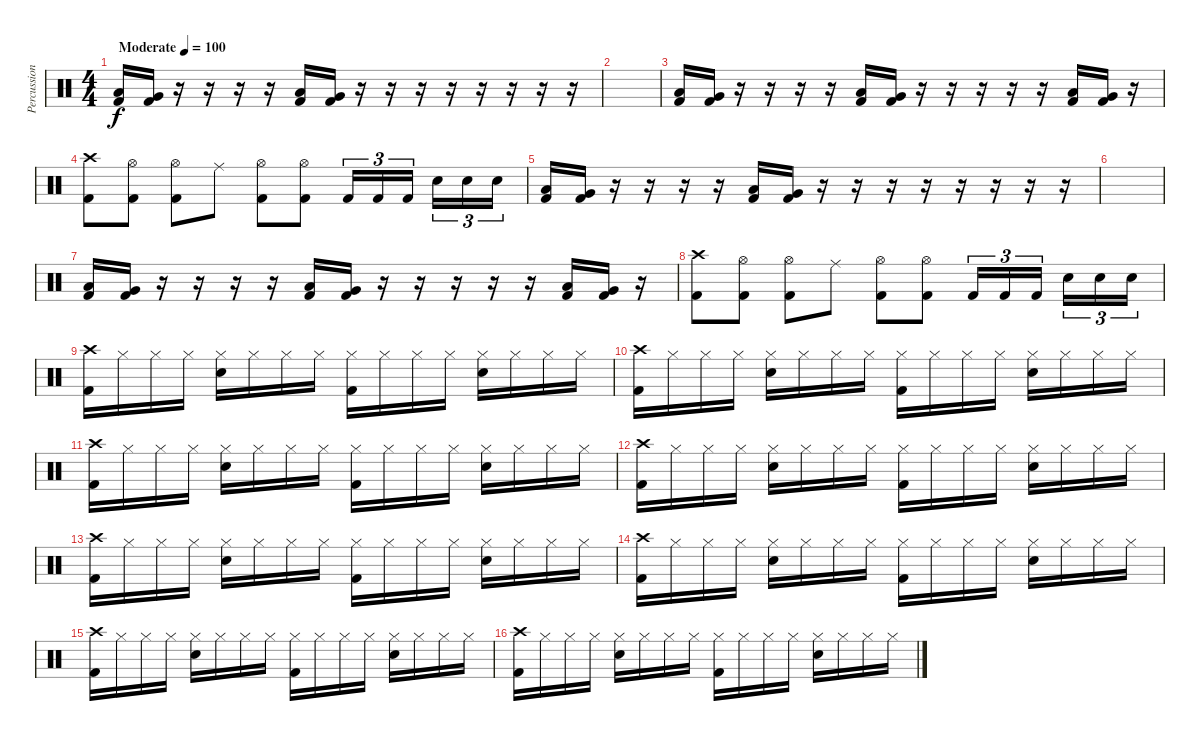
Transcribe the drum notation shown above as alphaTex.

\track ("Percussion" "Percussion") {instrument percussion}
\staff {score}
\articulation defaults
\ts (4 4)
\tempo (100 "Moderate")
\clef neutral
\ks c
("Low Floor Tom (hit)" "Kick (hit) 2").16{dy f} ("Very Low Tom (hit)" "Kick (hit) 2").16 r.16 r.16 r.16 r.16 ("Low Floor Tom (hit)" "Kick (hit) 2").16 ("Very Low Tom (hit)" "Kick (hit) 2").16 r.16 r.16 r.16 r.16 r.16 r.16 r.16 r.16 |
|
("Low Floor Tom (hit)" "Kick (hit) 2").16 ("Very Low Tom (hit)" "Kick (hit) 2").16 r.16 r.16 r.16 r.16 ("Low Floor Tom (hit)" "Kick (hit) 2").16 ("Very Low Tom (hit)" "Kick (hit) 2").16 r.16 r.16 r.16 r.16 r.16 ("Low Floor Tom (hit)" "Kick (hit) 2").16 ("Very Low Tom (hit)" "Kick (hit) 2").16 r.16 |
("Crash high (hit)" "Kick (hit) 2").8 ("Hi-Hat (open)" "Kick (hit) 2").8 ("Hi-Hat (open)" "Kick (hit) 2").8 "Ride (middle)".8 ("Hi-Hat (open)" "Kick (hit) 2").8 ("Hi-Hat (open)" "Kick (hit) 2").8 "Kick (hit) 2".16{tu (3 2)} "Kick (hit) 2".16{tu (3 2)} "Kick (hit) 2".16{tu (3 2) beam splitsecondary} "Electric Snare (hit)".16{tu (3 2)} "Electric Snare (hit)".16{tu (3 2)} "Electric Snare (hit)".16{tu (3 2)} |
("Low Floor Tom (hit)" "Kick (hit) 2").16 ("Very Low Tom (hit)" "Kick (hit) 2").16 r.16 r.16 r.16 r.16 ("Low Floor Tom (hit)" "Kick (hit) 2").16 ("Very Low Tom (hit)" "Kick (hit) 2").16 r.16 r.16 r.16 r.16 r.16 r.16 r.16 r.16 |
|
("Low Floor Tom (hit)" "Kick (hit) 2").16 ("Very Low Tom (hit)" "Kick (hit) 2").16 r.16 r.16 r.16 r.16 ("Low Floor Tom (hit)" "Kick (hit) 2").16 ("Very Low Tom (hit)" "Kick (hit) 2").16 r.16 r.16 r.16 r.16 r.16 ("Low Floor Tom (hit)" "Kick (hit) 2").16 ("Very Low Tom (hit)" "Kick (hit) 2").16 r.16 |
("Crash high (hit)" "Kick (hit) 2").8 ("Hi-Hat (open)" "Kick (hit) 2").8 ("Hi-Hat (open)" "Kick (hit) 2").8 "Ride (middle)".8 ("Hi-Hat (open)" "Kick (hit) 2").8 ("Hi-Hat (open)" "Kick (hit) 2").8 "Kick (hit) 2".16{tu (3 2)} "Kick (hit) 2".16{tu (3 2)} "Kick (hit) 2".16{tu (3 2) beam splitsecondary} "Electric Snare (hit)".16{tu (3 2)} "Electric Snare (hit)".16{tu (3 2)} "Electric Snare (hit)".16{tu (3 2)} |
("Crash high (hit)" "Kick (hit) 2").16 "Hi-Hat (closed)".16 "Hi-Hat (closed)".16 "Hi-Hat (closed)".16 ("Hi-Hat (closed)" "Electric Snare (hit)").16 "Hi-Hat (closed)".16 "Hi-Hat (closed)".16 "Hi-Hat (closed)".16 ("Hi-Hat (closed)" "Kick (hit) 2").16 "Hi-Hat (closed)".16 "Hi-Hat (closed)".16 "Hi-Hat (closed)".16 ("Hi-Hat (closed)" "Electric Snare (hit)").16 "Hi-Hat (closed)".16 "Hi-Hat (closed)".16 "Hi-Hat (closed)".16 |
("Crash high (hit)" "Kick (hit) 2").16 "Hi-Hat (closed)".16 "Hi-Hat (closed)".16 "Hi-Hat (closed)".16 ("Hi-Hat (closed)" "Electric Snare (hit)").16 "Hi-Hat (closed)".16 "Hi-Hat (closed)".16 "Hi-Hat (closed)".16 ("Hi-Hat (closed)" "Kick (hit) 2").16 "Hi-Hat (closed)".16 "Hi-Hat (closed)".16 "Hi-Hat (closed)".16 ("Hi-Hat (closed)" "Electric Snare (hit)").16 "Hi-Hat (closed)".16 "Hi-Hat (closed)".16 "Hi-Hat (closed)".16 |
("Crash high (hit)" "Kick (hit) 2").16 "Hi-Hat (closed)".16 "Hi-Hat (closed)".16 "Hi-Hat (closed)".16 ("Hi-Hat (closed)" "Electric Snare (hit)").16 "Hi-Hat (closed)".16 "Hi-Hat (closed)".16 "Hi-Hat (closed)".16 ("Hi-Hat (closed)" "Kick (hit) 2").16 "Hi-Hat (closed)".16 "Hi-Hat (closed)".16 "Hi-Hat (closed)".16 ("Hi-Hat (closed)" "Electric Snare (hit)").16 "Hi-Hat (closed)".16 "Hi-Hat (closed)".16 "Hi-Hat (closed)".16 |
("Crash high (hit)" "Kick (hit) 2").16 "Hi-Hat (closed)".16 "Hi-Hat (closed)".16 "Hi-Hat (closed)".16 ("Hi-Hat (closed)" "Electric Snare (hit)").16 "Hi-Hat (closed)".16 "Hi-Hat (closed)".16 "Hi-Hat (closed)".16 ("Hi-Hat (closed)" "Kick (hit) 2").16 "Hi-Hat (closed)".16 "Hi-Hat (closed)".16 "Hi-Hat (closed)".16 ("Hi-Hat (closed)" "Electric Snare (hit)").16 "Hi-Hat (closed)".16 "Hi-Hat (closed)".16 "Hi-Hat (closed)".16 |
("Crash high (hit)" "Kick (hit) 2").16 "Hi-Hat (closed)".16 "Hi-Hat (closed)".16 "Hi-Hat (closed)".16 ("Hi-Hat (closed)" "Electric Snare (hit)").16 "Hi-Hat (closed)".16 "Hi-Hat (closed)".16 "Hi-Hat (closed)".16 ("Hi-Hat (closed)" "Kick (hit) 2").16 "Hi-Hat (closed)".16 "Hi-Hat (closed)".16 "Hi-Hat (closed)".16 ("Hi-Hat (closed)" "Electric Snare (hit)").16 "Hi-Hat (closed)".16 "Hi-Hat (closed)".16 "Hi-Hat (closed)".16 |
("Crash high (hit)" "Kick (hit) 2").16 "Hi-Hat (closed)".16 "Hi-Hat (closed)".16 "Hi-Hat (closed)".16 ("Hi-Hat (closed)" "Electric Snare (hit)").16 "Hi-Hat (closed)".16 "Hi-Hat (closed)".16 "Hi-Hat (closed)".16 ("Hi-Hat (closed)" "Kick (hit) 2").16 "Hi-Hat (closed)".16 "Hi-Hat (closed)".16 "Hi-Hat (closed)".16 ("Hi-Hat (closed)" "Electric Snare (hit)").16 "Hi-Hat (closed)".16 "Hi-Hat (closed)".16 "Hi-Hat (closed)".16 |
("Crash high (hit)" "Kick (hit) 2").16 "Hi-Hat (closed)".16 "Hi-Hat (closed)".16 "Hi-Hat (closed)".16 ("Hi-Hat (closed)" "Electric Snare (hit)").16 "Hi-Hat (closed)".16 "Hi-Hat (closed)".16 "Hi-Hat (closed)".16 ("Hi-Hat (closed)" "Kick (hit) 2").16 "Hi-Hat (closed)".16 "Hi-Hat (closed)".16 "Hi-Hat (closed)".16 ("Hi-Hat (closed)" "Electric Snare (hit)").16 "Hi-Hat (closed)".16 "Hi-Hat (closed)".16 "Hi-Hat (closed)".16 |
("Crash high (hit)" "Kick (hit) 2").16 "Hi-Hat (closed)".16 "Hi-Hat (closed)".16 "Hi-Hat (closed)".16 ("Hi-Hat (closed)" "Electric Snare (hit)").16 "Hi-Hat (closed)".16 "Hi-Hat (closed)".16 "Hi-Hat (closed)".16 ("Hi-Hat (closed)" "Kick (hit) 2").16 "Hi-Hat (closed)".16 "Hi-Hat (closed)".16 "Hi-Hat (closed)".16 ("Hi-Hat (closed)" "Electric Snare (hit)").16 "Hi-Hat (closed)".16 "Hi-Hat (closed)".16 "Hi-Hat (closed)".16
